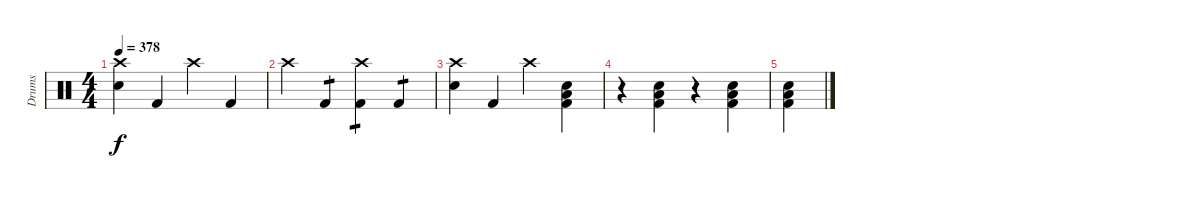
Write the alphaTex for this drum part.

\track ("Drums" "Drums") {instrument percussion}
\staff {score}
\articulation defaults
\ts (4 4)
\tempo 378
\clef neutral
\ks c
("Crash high (hit)" "Electric Snare (hit)").4{dy f} "Kick (hit) 2".4 "Crash high (hit)".4 "Kick (hit) 2".4 |
"Crash high (hit)".4 "Kick (hit) 2".4{tp 1} ("Crash high (hit)" "Kick (hit) 2").4{tp 1} "Kick (hit) 2".4{tp 1} |
("Crash high (hit)" "Electric Snare (hit)").4 "Kick (hit) 2".4 "Crash high (hit)".4 ("Low Floor Tom (hit)" "Electric Snare (hit)" "Kick (hit) 2").4 |
r.4 ("Low Floor Tom (hit)" "Electric Snare (hit)" "Kick (hit) 2").4 r.4 ("Low Floor Tom (hit)" "Electric Snare (hit)" "Kick (hit) 2").4 |
("Low Floor Tom (hit)" "Electric Snare (hit)" "Kick (hit) 2").4
